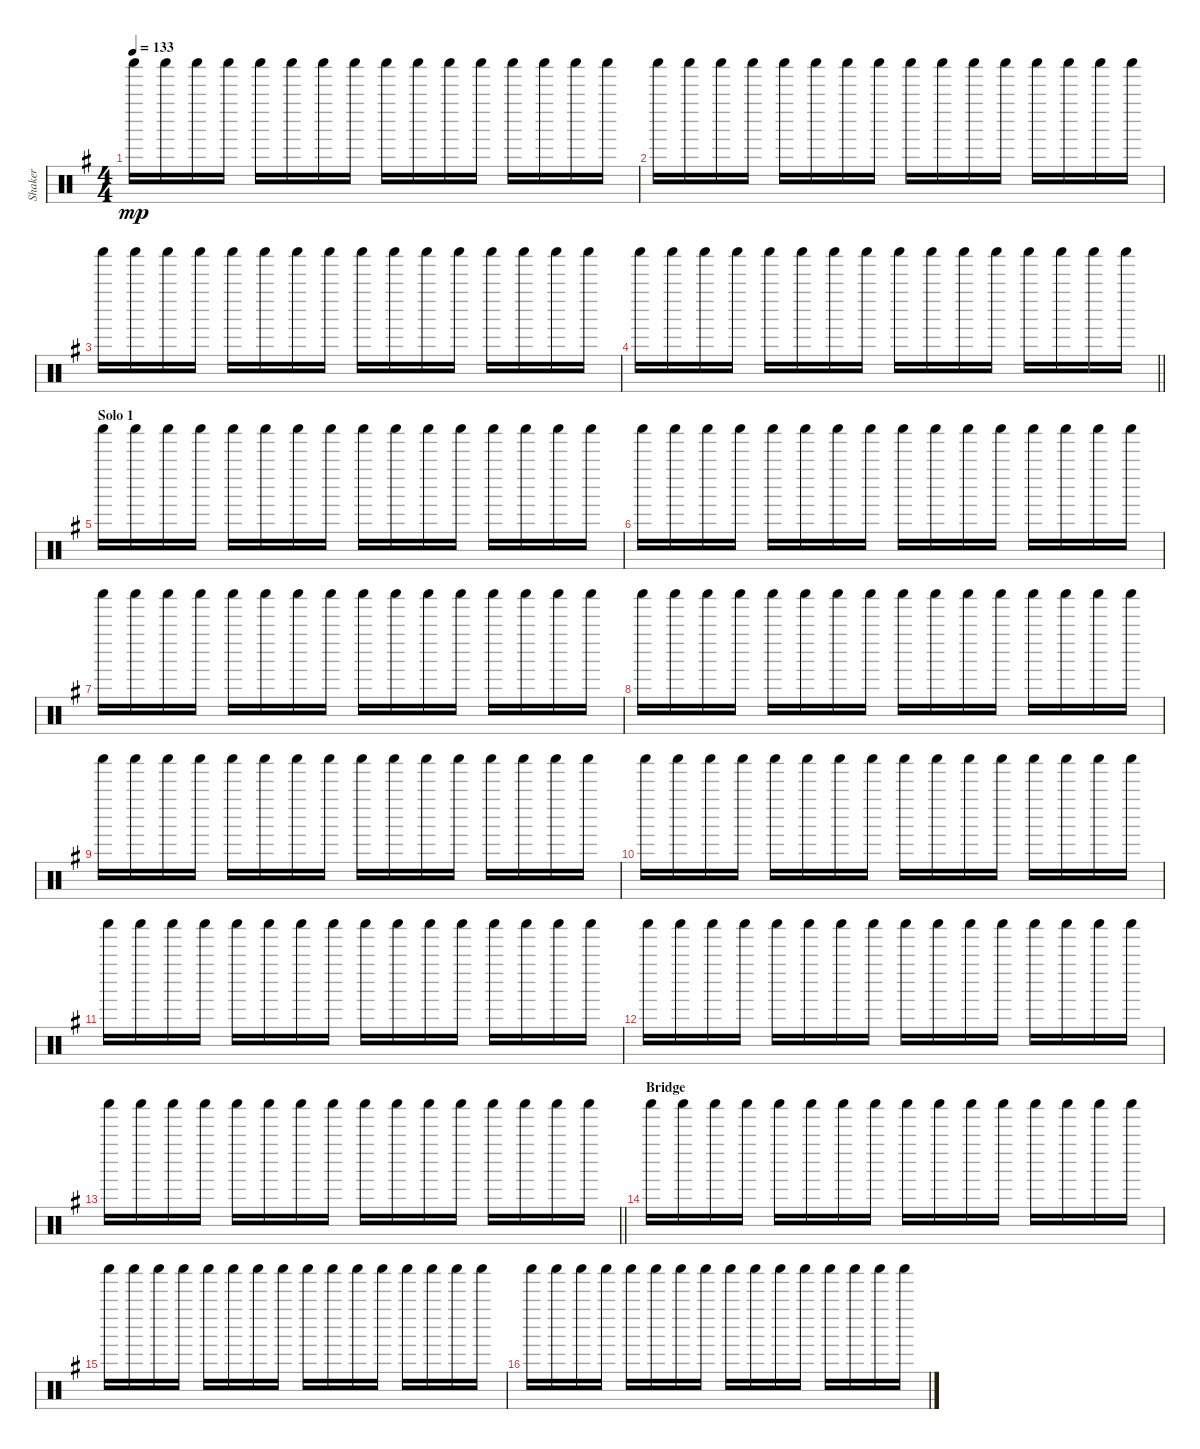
\track ("Shaker" "Shaker") {instrument percussion}
\staff {score}
\articulation defaults
\ts (4 4)
\tempo 133
\clef neutral
\ks g "Shaker (hit)".16{dy mp} "Shaker (hit)".16 "Shaker (hit)".16 "Shaker (hit)".16 "Shaker (hit)".16 "Shaker (hit)".16 "Shaker (hit)".16 "Shaker (hit)".16 "Shaker (hit)".16 "Shaker (hit)".16 "Shaker (hit)".16 "Shaker (hit)".16 "Shaker (hit)".16 "Shaker (hit)".16 "Shaker (hit)".16 "Shaker (hit)".16
|
"Shaker (hit)".16 "Shaker (hit)".16 "Shaker (hit)".16 "Shaker (hit)".16 "Shaker (hit)".16 "Shaker (hit)".16 "Shaker (hit)".16 "Shaker (hit)".16 "Shaker (hit)".16 "Shaker (hit)".16 "Shaker (hit)".16 "Shaker (hit)".16 "Shaker (hit)".16 "Shaker (hit)".16 "Shaker (hit)".16 "Shaker (hit)".16 |
"Shaker (hit)".16 "Shaker (hit)".16 "Shaker (hit)".16 "Shaker (hit)".16 "Shaker (hit)".16 "Shaker (hit)".16 "Shaker (hit)".16 "Shaker (hit)".16 "Shaker (hit)".16 "Shaker (hit)".16 "Shaker (hit)".16 "Shaker (hit)".16 "Shaker (hit)".16 "Shaker (hit)".16 "Shaker (hit)".16 "Shaker (hit)".16 |
\barLineRight lightlight "Shaker (hit)".16 "Shaker (hit)".16 "Shaker (hit)".16 "Shaker (hit)".16 "Shaker (hit)".16 "Shaker (hit)".16 "Shaker (hit)".16 "Shaker (hit)".16 "Shaker (hit)".16 "Shaker (hit)".16 "Shaker (hit)".16 "Shaker (hit)".16 "Shaker (hit)".16 "Shaker (hit)".16 "Shaker (hit)".16 "Shaker (hit)".16
|
\section ("" "Solo 1")
"Shaker (hit)".16 "Shaker (hit)".16 "Shaker (hit)".16 "Shaker (hit)".16 "Shaker (hit)".16 "Shaker (hit)".16 "Shaker (hit)".16 "Shaker (hit)".16 "Shaker (hit)".16 "Shaker (hit)".16 "Shaker (hit)".16 "Shaker (hit)".16 "Shaker (hit)".16 "Shaker (hit)".16 "Shaker (hit)".16 "Shaker (hit)".16 |
"Shaker (hit)".16 "Shaker (hit)".16 "Shaker (hit)".16 "Shaker (hit)".16 "Shaker (hit)".16 "Shaker (hit)".16 "Shaker (hit)".16 "Shaker (hit)".16 "Shaker (hit)".16 "Shaker (hit)".16 "Shaker (hit)".16 "Shaker (hit)".16 "Shaker (hit)".16 "Shaker (hit)".16 "Shaker (hit)".16 "Shaker (hit)".16 |
"Shaker (hit)".16 "Shaker (hit)".16 "Shaker (hit)".16 "Shaker (hit)".16 "Shaker (hit)".16 "Shaker (hit)".16 "Shaker (hit)".16 "Shaker (hit)".16 "Shaker (hit)".16 "Shaker (hit)".16 "Shaker (hit)".16 "Shaker (hit)".16 "Shaker (hit)".16 "Shaker (hit)".16 "Shaker (hit)".16 "Shaker (hit)".16 |
"Shaker (hit)".16 "Shaker (hit)".16 "Shaker (hit)".16 "Shaker (hit)".16 "Shaker (hit)".16 "Shaker (hit)".16 "Shaker (hit)".16 "Shaker (hit)".16 "Shaker (hit)".16 "Shaker (hit)".16 "Shaker (hit)".16 "Shaker (hit)".16 "Shaker (hit)".16 "Shaker (hit)".16 "Shaker (hit)".16 "Shaker (hit)".16 |
"Shaker (hit)".16 "Shaker (hit)".16 "Shaker (hit)".16 "Shaker (hit)".16 "Shaker (hit)".16 "Shaker (hit)".16 "Shaker (hit)".16 "Shaker (hit)".16 "Shaker (hit)".16 "Shaker (hit)".16 "Shaker (hit)".16 "Shaker (hit)".16 "Shaker (hit)".16 "Shaker (hit)".16 "Shaker (hit)".16 "Shaker (hit)".16 |
"Shaker (hit)".16 "Shaker (hit)".16 "Shaker (hit)".16 "Shaker (hit)".16 "Shaker (hit)".16 "Shaker (hit)".16 "Shaker (hit)".16 "Shaker (hit)".16 "Shaker (hit)".16 "Shaker (hit)".16 "Shaker (hit)".16 "Shaker (hit)".16 "Shaker (hit)".16 "Shaker (hit)".16 "Shaker (hit)".16 "Shaker (hit)".16 |
"Shaker (hit)".16 "Shaker (hit)".16 "Shaker (hit)".16 "Shaker (hit)".16 "Shaker (hit)".16 "Shaker (hit)".16 "Shaker (hit)".16 "Shaker (hit)".16 "Shaker (hit)".16 "Shaker (hit)".16 "Shaker (hit)".16 "Shaker (hit)".16 "Shaker (hit)".16 "Shaker (hit)".16 "Shaker (hit)".16 "Shaker (hit)".16 |
"Shaker (hit)".16 "Shaker (hit)".16 "Shaker (hit)".16 "Shaker (hit)".16 "Shaker (hit)".16 "Shaker (hit)".16 "Shaker (hit)".16 "Shaker (hit)".16 "Shaker (hit)".16 "Shaker (hit)".16 "Shaker (hit)".16 "Shaker (hit)".16 "Shaker (hit)".16 "Shaker (hit)".16 "Shaker (hit)".16 "Shaker (hit)".16 |
\barLineRight lightlight "Shaker (hit)".16 "Shaker (hit)".16 "Shaker (hit)".16 "Shaker (hit)".16 "Shaker (hit)".16 "Shaker (hit)".16 "Shaker (hit)".16 "Shaker (hit)".16 "Shaker (hit)".16 "Shaker (hit)".16 "Shaker (hit)".16 "Shaker (hit)".16 "Shaker (hit)".16 "Shaker (hit)".16 "Shaker (hit)".16 "Shaker (hit)".16
|
\section ("" "Bridge")
"Shaker (hit)".16 "Shaker (hit)".16 "Shaker (hit)".16 "Shaker (hit)".16 "Shaker (hit)".16 "Shaker (hit)".16 "Shaker (hit)".16 "Shaker (hit)".16 "Shaker (hit)".16 "Shaker (hit)".16 "Shaker (hit)".16 "Shaker (hit)".16 "Shaker (hit)".16 "Shaker (hit)".16 "Shaker (hit)".16 "Shaker (hit)".16 |
"Shaker (hit)".16 "Shaker (hit)".16 "Shaker (hit)".16 "Shaker (hit)".16 "Shaker (hit)".16 "Shaker (hit)".16 "Shaker (hit)".16 "Shaker (hit)".16 "Shaker (hit)".16 "Shaker (hit)".16 "Shaker (hit)".16 "Shaker (hit)".16 "Shaker (hit)".16 "Shaker (hit)".16 "Shaker (hit)".16 "Shaker (hit)".16 |
"Shaker (hit)".16 "Shaker (hit)".16 "Shaker (hit)".16 "Shaker (hit)".16 "Shaker (hit)".16 "Shaker (hit)".16 "Shaker (hit)".16 "Shaker (hit)".16 "Shaker (hit)".16 "Shaker (hit)".16 "Shaker (hit)".16 "Shaker (hit)".16 "Shaker (hit)".16 "Shaker (hit)".16 "Shaker (hit)".16 "Shaker (hit)".16
